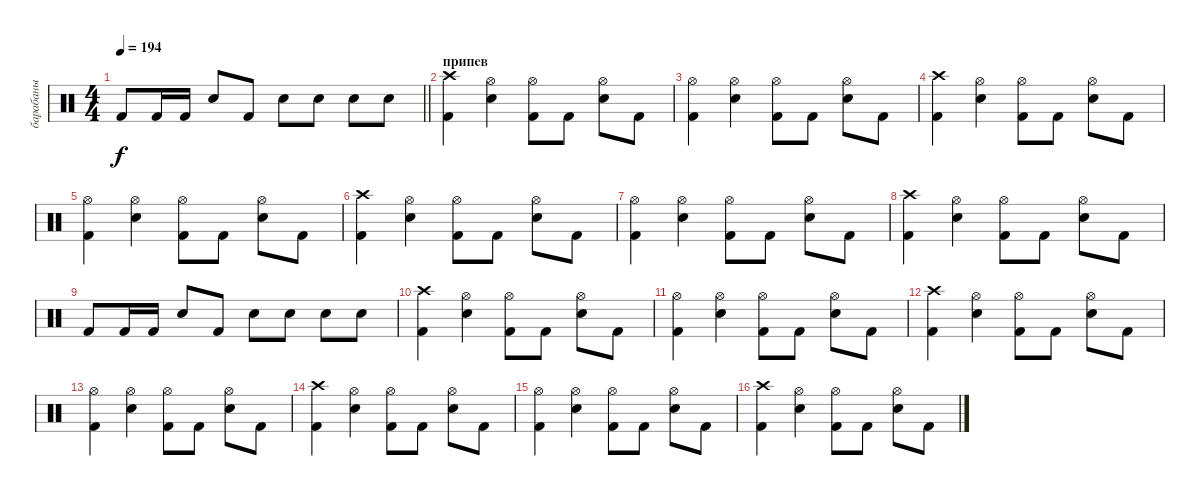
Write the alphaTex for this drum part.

\track ("барабаны" "барабаны") {instrument percussion}
\staff {score}
\articulation defaults
\ts (4 4)
\tempo 194
\clef neutral
\barLineRight lightlight
\ks c "Kick (hit) 2".8{dy f} "Kick (hit) 2".16 "Kick (hit) 2".16 "Snare (hit) 2".8 "Kick (hit) 2".8 "Snare (hit) 2".8 "Snare (hit) 2".8 "Snare (hit) 2".8 "Snare (hit) 2".8
|
\section ("" "припев")
("Crash high (hit)" "Kick (hit) 2").4 ("Hi-Hat (open)" "Snare (hit) 2").4 ("Hi-Hat (open)" "Kick (hit) 2").8 "Kick (hit) 2".8 ("Hi-Hat (open)" "Snare (hit) 2").8 "Kick (hit) 2".8 |
("Hi-Hat (open)" "Kick (hit) 2").4 ("Hi-Hat (open)" "Snare (hit) 2").4 ("Hi-Hat (open)" "Kick (hit) 2").8 "Kick (hit) 2".8 ("Hi-Hat (open)" "Snare (hit) 2").8 "Kick (hit) 2".8 |
("Crash high (hit)" "Kick (hit) 2").4 ("Hi-Hat (open)" "Snare (hit) 2").4 ("Hi-Hat (open)" "Kick (hit) 2").8 "Kick (hit) 2".8 ("Hi-Hat (open)" "Snare (hit) 2").8 "Kick (hit) 2".8 |
("Hi-Hat (open)" "Kick (hit) 2").4 ("Hi-Hat (open)" "Snare (hit) 2").4 ("Hi-Hat (open)" "Kick (hit) 2").8 "Kick (hit) 2".8 ("Hi-Hat (open)" "Snare (hit) 2").8 "Kick (hit) 2".8 |
("Crash high (hit)" "Kick (hit) 2").4 ("Hi-Hat (open)" "Snare (hit) 2").4 ("Hi-Hat (open)" "Kick (hit) 2").8 "Kick (hit) 2".8 ("Hi-Hat (open)" "Snare (hit) 2").8 "Kick (hit) 2".8 |
("Hi-Hat (open)" "Kick (hit) 2").4 ("Hi-Hat (open)" "Snare (hit) 2").4 ("Hi-Hat (open)" "Kick (hit) 2").8 "Kick (hit) 2".8 ("Hi-Hat (open)" "Snare (hit) 2").8 "Kick (hit) 2".8 |
("Crash high (hit)" "Kick (hit) 2").4 ("Hi-Hat (open)" "Snare (hit) 2").4 ("Hi-Hat (open)" "Kick (hit) 2").8 "Kick (hit) 2".8 ("Hi-Hat (open)" "Snare (hit) 2").8 "Kick (hit) 2".8 |
"Kick (hit) 2".8 "Kick (hit) 2".16 "Kick (hit) 2".16 "Snare (hit) 2".8 "Kick (hit) 2".8 "Snare (hit) 2".8 "Snare (hit) 2".8 "Snare (hit) 2".8 "Snare (hit) 2".8 |
("Crash high (hit)" "Kick (hit) 2").4 ("Hi-Hat (open)" "Snare (hit) 2").4 ("Hi-Hat (open)" "Kick (hit) 2").8 "Kick (hit) 2".8 ("Hi-Hat (open)" "Snare (hit) 2").8 "Kick (hit) 2".8 |
("Hi-Hat (open)" "Kick (hit) 2").4 ("Hi-Hat (open)" "Snare (hit) 2").4 ("Hi-Hat (open)" "Kick (hit) 2").8 "Kick (hit) 2".8 ("Hi-Hat (open)" "Snare (hit) 2").8 "Kick (hit) 2".8 |
("Crash high (hit)" "Kick (hit) 2").4 ("Hi-Hat (open)" "Snare (hit) 2").4 ("Hi-Hat (open)" "Kick (hit) 2").8 "Kick (hit) 2".8 ("Hi-Hat (open)" "Snare (hit) 2").8 "Kick (hit) 2".8 |
("Hi-Hat (open)" "Kick (hit) 2").4 ("Hi-Hat (open)" "Snare (hit) 2").4 ("Hi-Hat (open)" "Kick (hit) 2").8 "Kick (hit) 2".8 ("Hi-Hat (open)" "Snare (hit) 2").8 "Kick (hit) 2".8 |
("Crash high (hit)" "Kick (hit) 2").4 ("Hi-Hat (open)" "Snare (hit) 2").4 ("Hi-Hat (open)" "Kick (hit) 2").8 "Kick (hit) 2".8 ("Hi-Hat (open)" "Snare (hit) 2").8 "Kick (hit) 2".8 |
("Hi-Hat (open)" "Kick (hit) 2").4 ("Hi-Hat (open)" "Snare (hit) 2").4 ("Hi-Hat (open)" "Kick (hit) 2").8 "Kick (hit) 2".8 ("Hi-Hat (open)" "Snare (hit) 2").8 "Kick (hit) 2".8 |
("Crash high (hit)" "Kick (hit) 2").4 ("Hi-Hat (open)" "Snare (hit) 2").4 ("Hi-Hat (open)" "Kick (hit) 2").8 "Kick (hit) 2".8 ("Hi-Hat (open)" "Snare (hit) 2").8 "Kick (hit) 2".8
